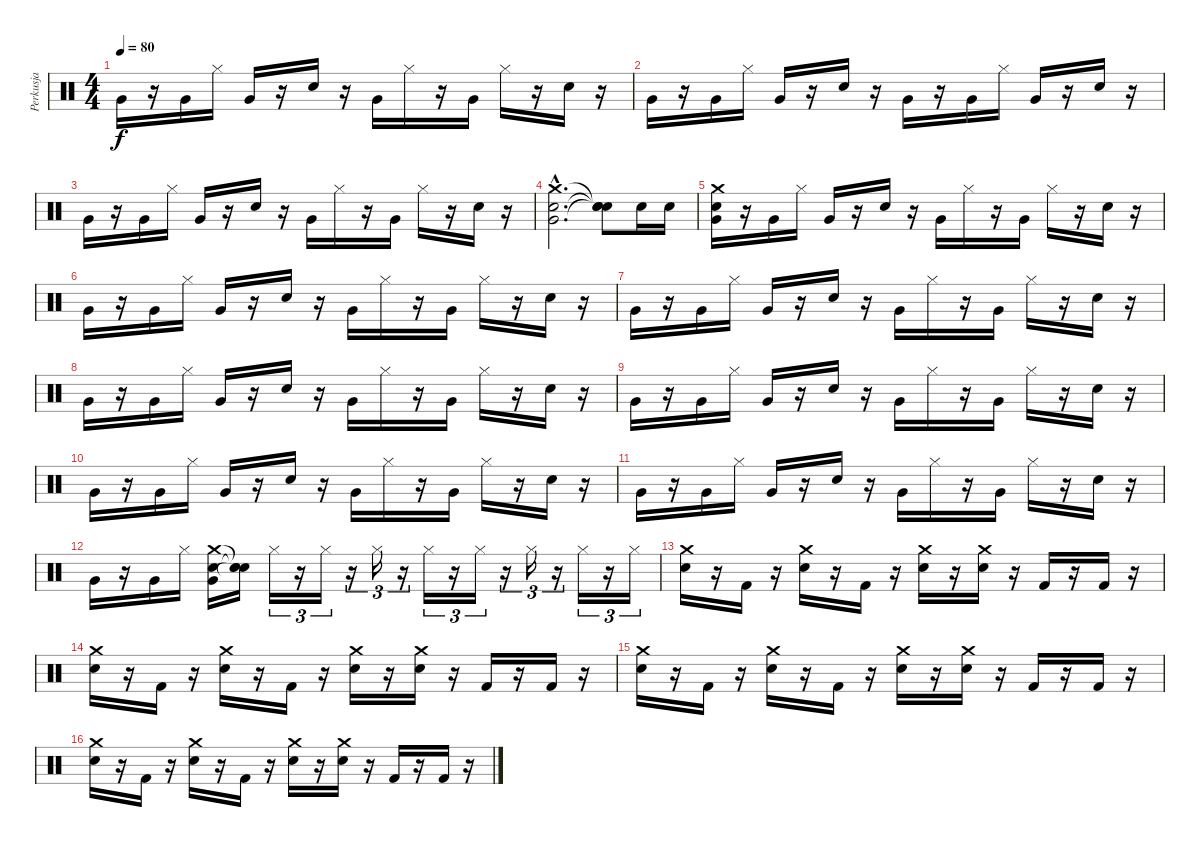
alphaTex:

\track ("Perkusja" "Perkusja") {instrument percussion}
\staff {score}
\articulation defaults
\ts (4 4)
\tempo 80
\clef neutral
\ks c "Very Low Tom (hit)".16{dy f}
r.16 "Very Low Tom (hit)".16 "Hi-Hat (closed)".16 "Very Low Tom (hit)".16 r.16 "Snare (hit) 2".16 r.16 "Very Low Tom (hit)".16 "Hi-Hat (closed)".16 r.16 "Very Low Tom (hit)".16 "Hi-Hat (closed)".16 r.16 "Snare (hit) 2".16 r.16 |
"Very Low Tom (hit)".16 r.16 "Very Low Tom (hit)".16 "Hi-Hat (closed)".16 "Very Low Tom (hit)".16 r.16 "Snare (hit) 2".16 r.16 "Very Low Tom (hit)".16 r.16 "Very Low Tom (hit)".16 "Hi-Hat (closed)".16 "Very Low Tom (hit)".16 r.16 "Snare (hit) 2".16 r.16 |
"Very Low Tom (hit)".16 r.16 "Very Low Tom (hit)".16 "Hi-Hat (closed)".16 "Very Low Tom (hit)".16 r.16 "Snare (hit) 2".16 r.16 "Very Low Tom (hit)".16 "Hi-Hat (closed)".16 r.16 "Very Low Tom (hit)".16 "Hi-Hat (closed)".16 r.16 "Snare (hit) 2".16 r.16 |
("Snare (hit) 2"{hac} "Very Low Tom (hit)"{hac} "Crash medium (hit)"{hac}).2{d} ("Snare (hit)"{t} "Snare (hit)"{t} "Snare (hit)"{t}).8 "Snare (hit) 2".16 "Snare (hit) 2".16 |
("Snare (hit) 2" "Very Low Tom (hit)" "Crash medium (hit)").16 r.16 "Very Low Tom (hit)".16 "Hi-Hat (closed)".16 "Very Low Tom (hit)".16 r.16 "Snare (hit) 2".16 r.16 "Very Low Tom (hit)".16 "Hi-Hat (closed)".16 r.16 "Very Low Tom (hit)".16 "Hi-Hat (closed)".16 r.16 "Snare (hit) 2".16 r.16 |
"Very Low Tom (hit)".16 r.16 "Very Low Tom (hit)".16 "Hi-Hat (closed)".16 "Very Low Tom (hit)".16 r.16 "Snare (hit) 2".16 r.16 "Very Low Tom (hit)".16 "Hi-Hat (closed)".16 r.16 "Very Low Tom (hit)".16 "Hi-Hat (closed)".16 r.16 "Snare (hit) 2".16 r.16 |
"Very Low Tom (hit)".16 r.16 "Very Low Tom (hit)".16 "Hi-Hat (closed)".16 "Very Low Tom (hit)".16 r.16 "Snare (hit) 2".16 r.16 "Very Low Tom (hit)".16 "Hi-Hat (closed)".16 r.16 "Very Low Tom (hit)".16 "Hi-Hat (closed)".16 r.16 "Snare (hit) 2".16 r.16 |
"Very Low Tom (hit)".16 r.16 "Very Low Tom (hit)".16 "Hi-Hat (closed)".16 "Very Low Tom (hit)".16 r.16 "Snare (hit) 2".16 r.16 "Very Low Tom (hit)".16 "Hi-Hat (closed)".16 r.16 "Very Low Tom (hit)".16 "Hi-Hat (closed)".16 r.16 "Snare (hit) 2".16 r.16 |
"Very Low Tom (hit)".16 r.16 "Very Low Tom (hit)".16 "Hi-Hat (closed)".16 "Very Low Tom (hit)".16 r.16 "Snare (hit) 2".16 r.16 "Very Low Tom (hit)".16 "Hi-Hat (closed)".16 r.16 "Very Low Tom (hit)".16 "Hi-Hat (closed)".16 r.16 "Snare (hit) 2".16 r.16 |
"Very Low Tom (hit)".16 r.16 "Very Low Tom (hit)".16 "Hi-Hat (closed)".16 "Very Low Tom (hit)".16 r.16 "Snare (hit) 2".16 r.16 "Very Low Tom (hit)".16 "Hi-Hat (closed)".16 r.16 "Very Low Tom (hit)".16 "Hi-Hat (closed)".16 r.16 "Snare (hit) 2".16 r.16 |
"Very Low Tom (hit)".16 r.16 "Very Low Tom (hit)".16 "Hi-Hat (closed)".16 "Very Low Tom (hit)".16 r.16 "Snare (hit) 2".16 r.16 "Very Low Tom (hit)".16 "Hi-Hat (closed)".16 r.16 "Very Low Tom (hit)".16 "Hi-Hat (closed)".16 r.16 "Snare (hit) 2".16 r.16 |
"Very Low Tom (hit)".16 r.16 "Very Low Tom (hit)".16 "Hi-Hat (closed)".16 ("Snare (hit) 2" "Very Low Tom (hit)" "Crash medium (hit)").16 ("Snare (hit)"{t} "Snare (hit)"{t} "Snare (hit)"{t}).16 "Hi-Hat (closed)".16{tu (3 2)} r.16{tu (3 2)} "Hi-Hat (closed)".16{tu (3 2)} r.16{tu (3 2)} "Hi-Hat (closed)".16{tu (3 2)} r.16{tu (3 2)} "Hi-Hat (closed)".16{tu (3 2)} r.16{tu (3 2)} "Hi-Hat (closed)".16{tu (3 2)} r.16{tu (3 2)} "Hi-Hat (closed)".16{tu (3 2)} r.16{tu (3 2)} "Hi-Hat (closed)".16{tu (3 2)} r.16{tu (3 2)} "Hi-Hat (closed)".16{tu (3 2)} |
("Snare (hit) 2" "Crash medium (hit)").16 r.16 "Kick (hit) 2".16 r.16 ("Snare (hit) 2" "Crash medium (hit)").16 r.16 "Kick (hit) 2".16 r.16 ("Snare (hit) 2" "Crash medium (hit)").16 r.16 ("Snare (hit) 2" "Crash medium (hit)").16 r.16 "Kick (hit) 2".16 r.16 "Kick (hit) 2".16 r.16 |
("Snare (hit) 2" "Crash medium (hit)").16 r.16 "Kick (hit) 2".16 r.16 ("Snare (hit) 2" "Crash medium (hit)").16 r.16 "Kick (hit) 2".16 r.16 ("Snare (hit) 2" "Crash medium (hit)").16 r.16 ("Snare (hit) 2" "Crash medium (hit)").16 r.16 "Kick (hit) 2".16 r.16 "Kick (hit) 2".16 r.16 |
("Snare (hit) 2" "Crash medium (hit)").16 r.16 "Kick (hit) 2".16 r.16 ("Snare (hit) 2" "Crash medium (hit)").16 r.16 "Kick (hit) 2".16 r.16 ("Snare (hit) 2" "Crash medium (hit)").16 r.16 ("Snare (hit) 2" "Crash medium (hit)").16 r.16 "Kick (hit) 2".16 r.16 "Kick (hit) 2".16 r.16 |
("Snare (hit) 2" "Crash medium (hit)").16 r.16 "Kick (hit) 2".16 r.16 ("Snare (hit) 2" "Crash medium (hit)").16 r.16 "Kick (hit) 2".16 r.16 ("Snare (hit) 2" "Crash medium (hit)").16 r.16 ("Snare (hit) 2" "Crash medium (hit)").16 r.16 "Kick (hit) 2".16 r.16 "Kick (hit) 2".16 r.16
